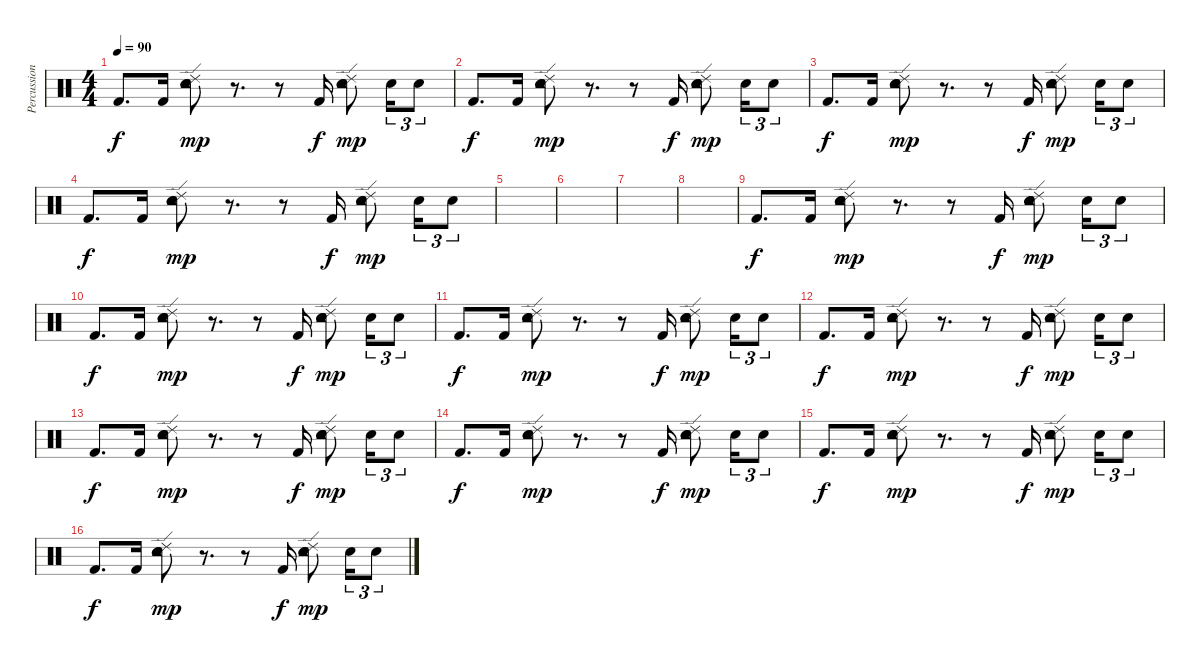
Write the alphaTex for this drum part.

\track ("Percussion" "Percussion") {instrument percussion}
\staff {score}
\articulation defaults
\ts (4 4)
\tempo 90
\clef neutral
\ks c "Kick (hit) 2".8{d dy f} "Kick (hit) 2".16
("Ride (edge) 2" "Tambourine (hit)" "Electric Snare (hit)" "Snare (hit) 2").8{dy mp} r.8{d} r.8 "Kick (hit) 2".16{dy f} ("Ride (edge) 2" "Tambourine (hit)" "Electric Snare (hit)" "Snare (hit) 2").8{dy mp} "Electric Snare (hit)".16{tu (3 2)} "Electric Snare (hit)".8{tu (3 2)} |
"Kick (hit) 2".8{d dy f} "Kick (hit) 2".16 ("Ride (edge) 2" "Tambourine (hit)" "Electric Snare (hit)" "Snare (hit) 2").8{dy mp} r.8{d} r.8 "Kick (hit) 2".16{dy f} ("Ride (edge) 2" "Tambourine (hit)" "Electric Snare (hit)" "Snare (hit) 2").8{dy mp} "Electric Snare (hit)".16{tu (3 2)} "Electric Snare (hit)".8{tu (3 2)} |
"Kick (hit) 2".8{d dy f} "Kick (hit) 2".16 ("Ride (edge) 2" "Tambourine (hit)" "Electric Snare (hit)" "Snare (hit) 2").8{dy mp} r.8{d} r.8 "Kick (hit) 2".16{dy f} ("Ride (edge) 2" "Tambourine (hit)" "Electric Snare (hit)" "Snare (hit) 2").8{dy mp} "Electric Snare (hit)".16{tu (3 2)} "Electric Snare (hit)".8{tu (3 2)} |
"Kick (hit) 2".8{d dy f} "Kick (hit) 2".16 ("Ride (edge) 2" "Tambourine (hit)" "Electric Snare (hit)" "Snare (hit) 2").8{dy mp} r.8{d} r.8 "Kick (hit) 2".16{dy f} ("Ride (edge) 2" "Tambourine (hit)" "Electric Snare (hit)" "Snare (hit) 2").8{dy mp} "Electric Snare (hit)".16{tu (3 2)} "Electric Snare (hit)".8{tu (3 2)} |
|
|
|
|
"Kick (hit) 2".8{d dy f} "Kick (hit) 2".16 ("Ride (edge) 2" "Tambourine (hit)" "Electric Snare (hit)" "Snare (hit) 2").8{dy mp} r.8{d} r.8 "Kick (hit) 2".16{dy f} ("Ride (edge) 2" "Tambourine (hit)" "Electric Snare (hit)" "Snare (hit) 2").8{dy mp} "Electric Snare (hit)".16{tu (3 2)} "Electric Snare (hit)".8{tu (3 2)} |
"Kick (hit) 2".8{d dy f} "Kick (hit) 2".16 ("Ride (edge) 2" "Tambourine (hit)" "Electric Snare (hit)" "Snare (hit) 2").8{dy mp} r.8{d} r.8 "Kick (hit) 2".16{dy f} ("Ride (edge) 2" "Tambourine (hit)" "Electric Snare (hit)" "Snare (hit) 2").8{dy mp} "Electric Snare (hit)".16{tu (3 2)} "Electric Snare (hit)".8{tu (3 2)} |
"Kick (hit) 2".8{d dy f} "Kick (hit) 2".16 ("Ride (edge) 2" "Tambourine (hit)" "Electric Snare (hit)" "Snare (hit) 2").8{dy mp} r.8{d} r.8 "Kick (hit) 2".16{dy f} ("Ride (edge) 2" "Tambourine (hit)" "Electric Snare (hit)" "Snare (hit) 2").8{dy mp} "Electric Snare (hit)".16{tu (3 2)} "Electric Snare (hit)".8{tu (3 2)} |
"Kick (hit) 2".8{d dy f} "Kick (hit) 2".16 ("Ride (edge) 2" "Tambourine (hit)" "Electric Snare (hit)" "Snare (hit) 2").8{dy mp} r.8{d} r.8 "Kick (hit) 2".16{dy f} ("Ride (edge) 2" "Tambourine (hit)" "Electric Snare (hit)" "Snare (hit) 2").8{dy mp} "Electric Snare (hit)".16{tu (3 2)} "Electric Snare (hit)".8{tu (3 2)} |
"Kick (hit) 2".8{d dy f} "Kick (hit) 2".16 ("Ride (edge) 2" "Tambourine (hit)" "Electric Snare (hit)" "Snare (hit) 2").8{dy mp} r.8{d} r.8 "Kick (hit) 2".16{dy f} ("Ride (edge) 2" "Tambourine (hit)" "Electric Snare (hit)" "Snare (hit) 2").8{dy mp} "Electric Snare (hit)".16{tu (3 2)} "Electric Snare (hit)".8{tu (3 2)} |
"Kick (hit) 2".8{d dy f} "Kick (hit) 2".16 ("Ride (edge) 2" "Tambourine (hit)" "Electric Snare (hit)" "Snare (hit) 2").8{dy mp} r.8{d} r.8 "Kick (hit) 2".16{dy f} ("Ride (edge) 2" "Tambourine (hit)" "Electric Snare (hit)" "Snare (hit) 2").8{dy mp} "Electric Snare (hit)".16{tu (3 2)} "Electric Snare (hit)".8{tu (3 2)} |
"Kick (hit) 2".8{d dy f} "Kick (hit) 2".16 ("Ride (edge) 2" "Tambourine (hit)" "Electric Snare (hit)" "Snare (hit) 2").8{dy mp} r.8{d} r.8 "Kick (hit) 2".16{dy f} ("Ride (edge) 2" "Tambourine (hit)" "Electric Snare (hit)" "Snare (hit) 2").8{dy mp} "Electric Snare (hit)".16{tu (3 2)} "Electric Snare (hit)".8{tu (3 2)} |
"Kick (hit) 2".8{d dy f} "Kick (hit) 2".16 ("Ride (edge) 2" "Tambourine (hit)" "Electric Snare (hit)" "Snare (hit) 2").8{dy mp} r.8{d} r.8 "Kick (hit) 2".16{dy f} ("Ride (edge) 2" "Tambourine (hit)" "Electric Snare (hit)" "Snare (hit) 2").8{dy mp} "Electric Snare (hit)".16{tu (3 2)} "Electric Snare (hit)".8{tu (3 2)}
